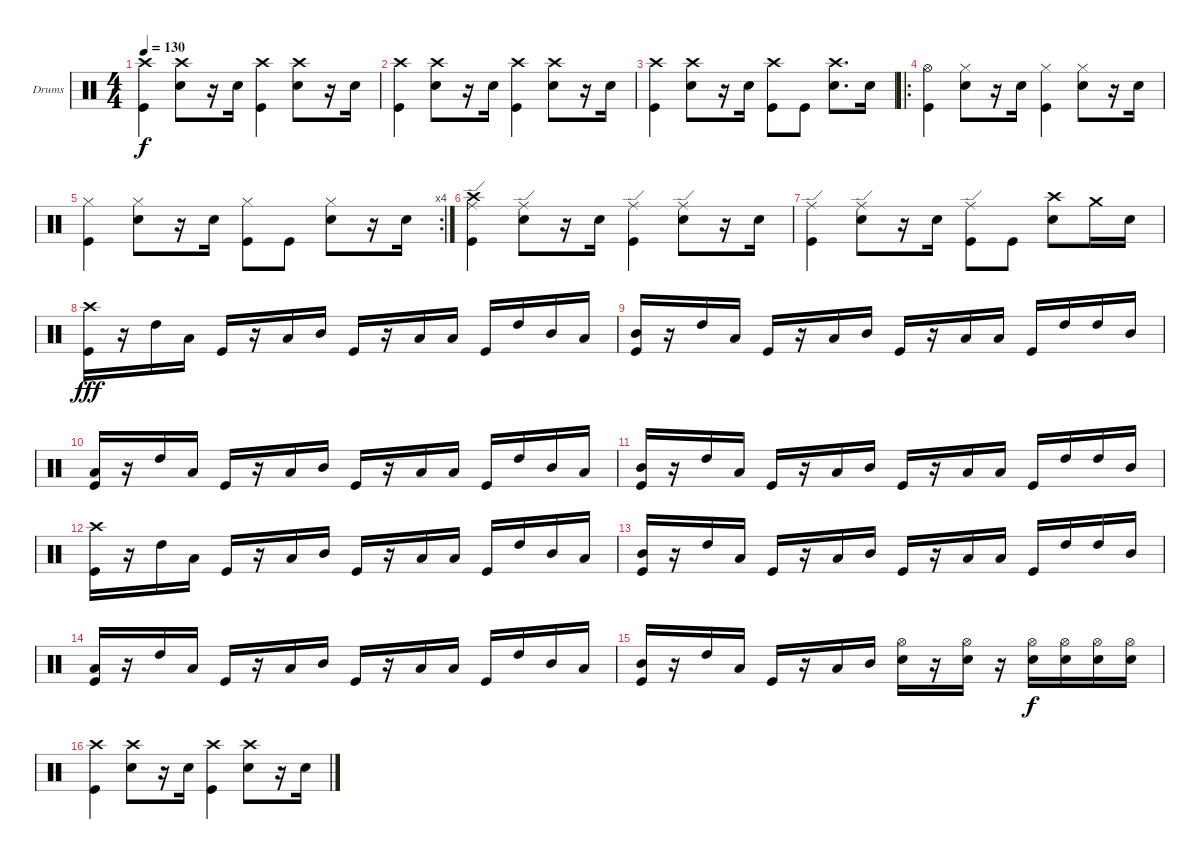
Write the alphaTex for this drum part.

\bracketExtendMode groupsimilarinstruments
\firstSystemTrackNameOrientation horizontal
\otherSystemsTrackNameOrientation horizontal
\track ("Drumkit" "Drums") {instrument percussion}
\staff {score}
\articulation defaults
\ts (4 4)
\tempo 130
\clef neutral
\ks c
("Kick (hit)" "Crash high (hit)").4{dy f} ("Snare (hit) 2" "Crash high (hit)").8 r.16 "Snare (hit) 2".16 ("Kick (hit)" "Crash high (hit)").4 ("Snare (hit) 2" "Crash high (hit)").8 r.16 "Snare (hit) 2".16 |
("Kick (hit)" "Crash high (hit)").4 ("Snare (hit) 2" "Crash high (hit)").8 r.16 "Snare (hit) 2".16 ("Kick (hit)" "Crash high (hit)").4 ("Snare (hit) 2" "Crash high (hit)").8 r.16 "Snare (hit) 2".16 |
("Kick (hit)" "Crash high (hit)").4 ("Snare (hit) 2" "Crash high (hit)").8 r.16 "Snare (hit) 2".16 ("Kick (hit)" "Crash high (hit)").8 "Kick (hit)".8 ("Snare (hit) 2" "Crash high (hit)").8{d} "Snare (hit) 2".16 |
\ro
("Kick (hit)" "Hi-Hat (open)").4 ("Snare (hit) 2" "Hi-Hat (closed)").8 r.16 "Snare (hit) 2".16 ("Kick (hit)" "Hi-Hat (closed)").4 ("Snare (hit) 2" "Hi-Hat (closed)").8 r.16 "Snare (hit) 2".16 |
\rc 4
("Kick (hit)" "Hi-Hat (closed)").4 ("Snare (hit) 2" "Hi-Hat (closed)").8 r.16 "Snare (hit) 2".16 ("Kick (hit)" "Hi-Hat (closed)").8 "Kick (hit)".8 ("Snare (hit) 2" "Hi-Hat (closed)").8 r.16 "Snare (hit) 2".16 |
("Kick (hit)" "Ride (edge)" "Crash high (hit)").4 ("Snare (hit) 2" "Ride (edge)").8 r.16 "Snare (hit) 2".16 ("Kick (hit)" "Ride (edge)").4 ("Snare (hit) 2" "Ride (edge)").8 r.16 "Snare (hit) 2".16 |
("Kick (hit)" "Ride (edge)").4 ("Snare (hit) 2" "Ride (edge)").8 r.16 "Snare (hit) 2".16 ("Kick (hit)" "Ride (edge)").8 "Kick (hit)".8 ("Snare (hit) 2" "Crash high (hit)").8 "Crash medium (hit)".16 "Snare (hit) 2".16 |
("Crash high (hit)" "Kick (hit)").16{dy fff} r.16 "High Tom (hit)".16 "Low Tom (hit)".16 "Kick (hit)".16 r.16 "Low Tom (hit)".16 "Mid Tom (hit)".16 "Kick (hit)".16 r.16 "Low Tom (hit)".16 "Low Tom (hit)".16 "Kick (hit)".16 "High Tom (hit)".16 "Mid Tom (hit)".16 "Low Tom (hit)".16 |
("Mid Tom (hit)" "Kick (hit)").16 r.16 "High Tom (hit)".16 "Low Tom (hit)".16 "Kick (hit)".16 r.16 "Low Tom (hit)".16 "Mid Tom (hit)".16 "Kick (hit)".16 r.16 "Low Tom (hit)".16 "Low Tom (hit)".16 "Kick (hit)".16 "High Tom (hit)".16 "High Tom (hit)".16 "Mid Tom (hit)".16 |
("Low Tom (hit)" "Kick (hit)").16 r.16 "High Tom (hit)".16 "Low Tom (hit)".16 "Kick (hit)".16 r.16 "Low Tom (hit)".16 "Mid Tom (hit)".16 "Kick (hit)".16 r.16 "Low Tom (hit)".16 "Low Tom (hit)".16 "Kick (hit)".16 "High Tom (hit)".16 "Mid Tom (hit)".16 "Low Tom (hit)".16 |
("Mid Tom (hit)" "Kick (hit)").16 r.16 "High Tom (hit)".16 "Low Tom (hit)".16 "Kick (hit)".16 r.16 "Low Tom (hit)".16 "Mid Tom (hit)".16 "Kick (hit)".16 r.16 "Low Tom (hit)".16 "Low Tom (hit)".16 "Kick (hit)".16 "High Tom (hit)".16 "High Tom (hit)".16 "Mid Tom (hit)".16 |
("Crash high (hit)" "Kick (hit)").16 r.16 "High Tom (hit)".16 "Low Tom (hit)".16 "Kick (hit)".16 r.16 "Low Tom (hit)".16 "Mid Tom (hit)".16 "Kick (hit)".16 r.16 "Low Tom (hit)".16 "Low Tom (hit)".16 "Kick (hit)".16 "High Tom (hit)".16 "Mid Tom (hit)".16 "Low Tom (hit)".16 |
("Mid Tom (hit)" "Kick (hit)").16 r.16 "High Tom (hit)".16 "Low Tom (hit)".16 "Kick (hit)".16 r.16 "Low Tom (hit)".16 "Mid Tom (hit)".16 "Kick (hit)".16 r.16 "Low Tom (hit)".16 "Low Tom (hit)".16 "Kick (hit)".16 "High Tom (hit)".16 "High Tom (hit)".16 "Mid Tom (hit)".16 |
("Low Tom (hit)" "Kick (hit)").16 r.16 "High Tom (hit)".16 "Low Tom (hit)".16 "Kick (hit)".16 r.16 "Low Tom (hit)".16 "Mid Tom (hit)".16 "Kick (hit)".16 r.16 "Low Tom (hit)".16 "Low Tom (hit)".16 "Kick (hit)".16 "High Tom (hit)".16 "Mid Tom (hit)".16 "Low Tom (hit)".16 |
("Mid Tom (hit)" "Kick (hit)").16 r.16 "High Tom (hit)".16 "Low Tom (hit)".16 "Kick (hit)".16 r.16 "Low Tom (hit)".16 "Mid Tom (hit)".16 ("Snare (hit) 2" "Hi-Hat (open)").16 r.16 ("Snare (hit) 2" "Hi-Hat (open)").16 r.16 ("Snare (hit) 2" "Hi-Hat (open)").16{dy f} ("Snare (hit) 2" "Hi-Hat (open)").16 ("Snare (hit) 2" "Hi-Hat (open)").16 ("Snare (hit) 2" "Hi-Hat (open)").16 |
("Kick (hit)" "Crash high (hit)").4 ("Snare (hit) 2" "Crash high (hit)").8 r.16 "Snare (hit) 2".16 ("Kick (hit)" "Crash high (hit)").4 ("Snare (hit) 2" "Crash high (hit)").8 r.16 "Snare (hit) 2".16
